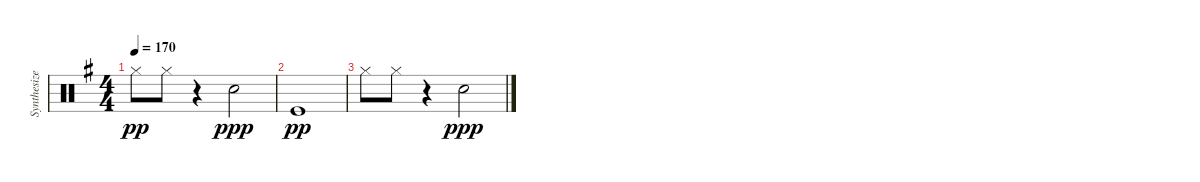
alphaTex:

\track ("Synthesizer B" "Synthesize") {instrument percussion}
\staff {score}
\articulation defaults
\ts (4 4)
\tempo 170
\clef neutral
\ks g "Hi-Hat (closed)".8{dy pp} "Hi-Hat (closed)".8
r.4 "Snare (hit) 2".2{dy ppp} |
"Kick (hit)".1{dy pp} |
"Hi-Hat (closed)".8 "Hi-Hat (closed)".8 r.4 "Snare (hit) 2".2{dy ppp}
